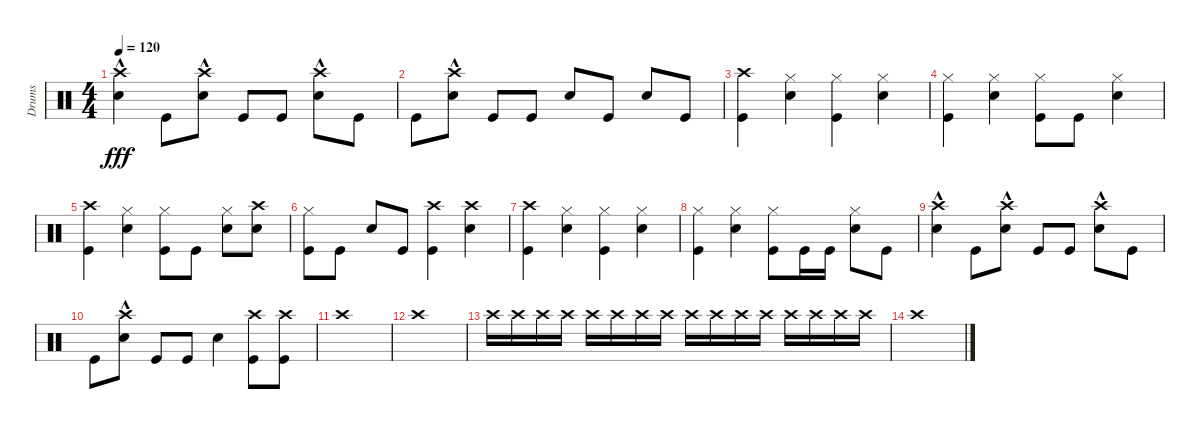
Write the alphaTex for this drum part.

\track ("Drums" "Drums") {instrument percussion}
\staff {score}
\articulation defaults
\ts (4 4)
\tempo 120
\clef neutral
\ks c
("Crash high (hit)"{hac} "Snare (hit) 2").4{dy fff} "Kick (hit)".8 ("Crash high (hit)"{hac} "Snare (hit) 2").8 "Kick (hit)".8 "Kick (hit)".8 ("Crash high (hit)"{hac} "Snare (hit) 2").8 "Kick (hit)".8 |
"Kick (hit)".8 ("Crash high (hit)"{hac} "Snare (hit) 2").8 "Kick (hit)".8 "Kick (hit)".8 "Snare (hit) 2".8 "Kick (hit)".8 "Snare (hit) 2".8 "Kick (hit)".8 |
("Crash high (hit)" "Kick (hit)").4 ("Snare (hit) 2" "Hi-Hat (closed)").4 ("Kick (hit)" "Hi-Hat (closed)").4 ("Snare (hit) 2" "Hi-Hat (closed)").4 |
("Kick (hit)" "Hi-Hat (closed)").4 ("Snare (hit) 2" "Hi-Hat (closed)").4 ("Kick (hit)" "Hi-Hat (closed)").8 "Kick (hit)".8 ("Snare (hit) 2" "Hi-Hat (closed)").4 |
("Kick (hit)" "Crash high (hit)").4 ("Snare (hit) 2" "Hi-Hat (closed)").4 ("Kick (hit)" "Hi-Hat (closed)").8 "Kick (hit)".8 ("Snare (hit) 2" "Hi-Hat (closed)").8 ("Snare (hit) 2" "Crash high (hit)").8 |
("Kick (hit)" "Hi-Hat (closed)").8 "Kick (hit)".8 "Snare (hit) 2".8 "Kick (hit)".8 ("Kick (hit)" "Crash high (hit)").4 ("Crash high (hit)" "Snare (hit) 2").4 |
("Kick (hit)" "Crash high (hit)").4 ("Snare (hit) 2" "Hi-Hat (closed)").4 ("Kick (hit)" "Hi-Hat (closed)").4 ("Hi-Hat (closed)" "Snare (hit) 2").4 |
("Kick (hit)" "Hi-Hat (closed)").4 ("Hi-Hat (closed)" "Snare (hit) 2").4 ("Kick (hit)" "Hi-Hat (closed)").8 "Kick (hit)".16 "Kick (hit)".16 ("Hi-Hat (closed)" "Snare (hit) 2").8 "Kick (hit)".8 |
("Snare (hit) 2" "Crash high (hit)"{hac}).4 "Kick (hit)".8 ("Crash high (hit)"{hac} "Snare (hit) 2").8 "Kick (hit)".8 "Kick (hit)".8 ("Crash high (hit)"{hac} "Snare (hit) 2").8 "Kick (hit)".8 |
"Kick (hit)".8 ("Crash high (hit)"{hac} "Snare (hit) 2").8 "Kick (hit)".8 "Kick (hit)".8 "Snare (hit) 2".4 ("Kick (hit)" "Crash high (hit)").8 ("Kick (hit)" "Crash high (hit)").8 |
"Crash high (hit)".1 |
"Crash high (hit)".1 |
"Crash high (hit)".16 "Crash high (hit)".16 "Crash high (hit)".16 "Crash high (hit)".16 "Crash high (hit)".16 "Crash high (hit)".16 "Crash high (hit)".16 "Crash high (hit)".16 "Crash high (hit)".16 "Crash high (hit)".16 "Crash high (hit)".16 "Crash high (hit)".16 "Crash high (hit)".16 "Crash high (hit)".16 "Crash high (hit)".16 "Crash high (hit)".16 |
"Crash high (hit)".1
